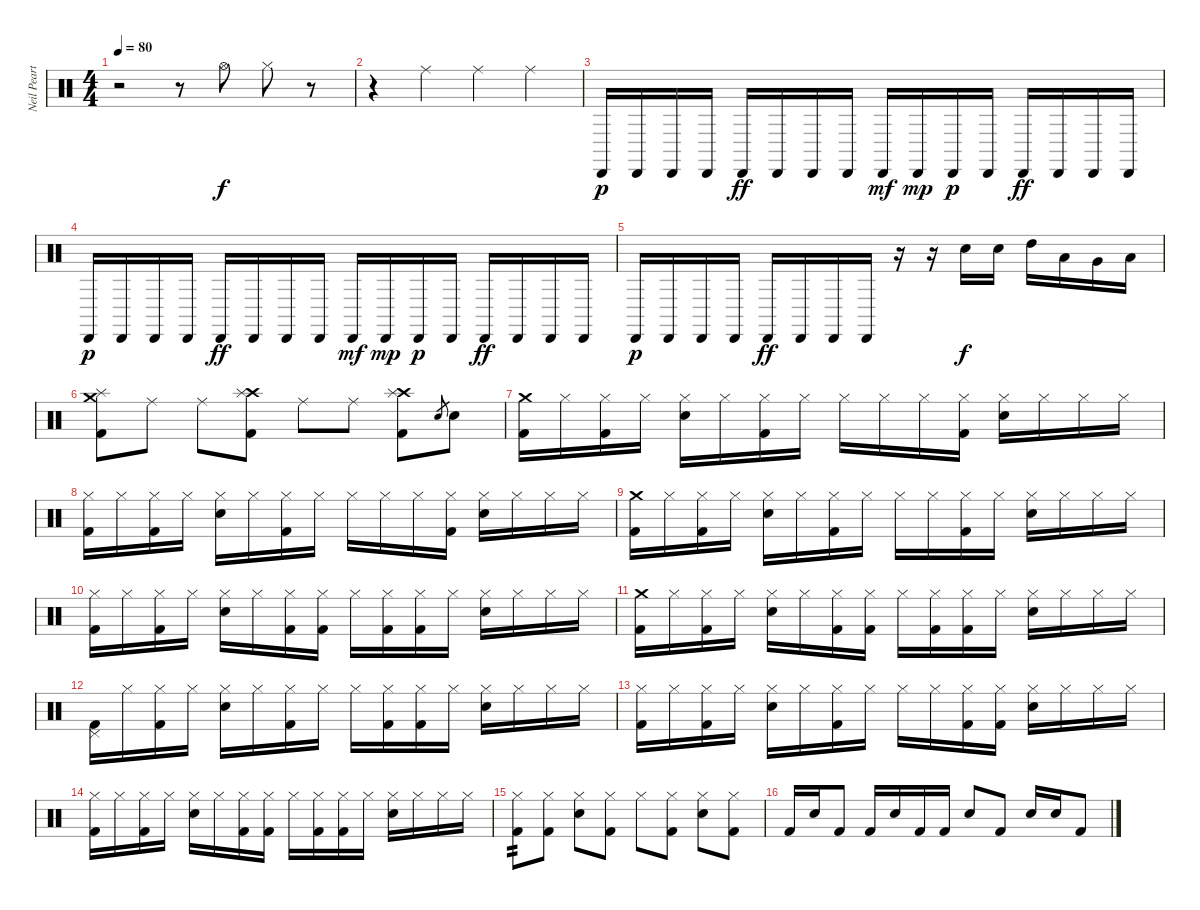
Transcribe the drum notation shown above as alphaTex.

\track ("Neil Peart" "Neil Peart") {instrument percussion}
\staff {score}
\articulation defaults
\ts (4 4)
\tempo 80
\clef neutral
\ks c
r.2{dy f} r.8 "Hi-Hat (open)".8 "Hi-Hat (closed)".8 r.8 |
r.4 "Ride (middle)".4 "Ride (middle)".4 "Ride (middle)".4 |
"Cabasa (hit)".16{dy p} "Cabasa (hit)".16 "Cabasa (hit)".16 "Cabasa (hit)".16 "Cabasa (hit)".16{dy ff} "Cabasa (hit)".16 "Cabasa (hit)".16 "Cabasa (hit)".16 "Cabasa (hit)".16{dy mf} "Cabasa (hit)".16{dy mp} "Cabasa (hit)".16{dy p} "Cabasa (hit)".16 "Cabasa (hit)".16{dy ff} "Cabasa (hit)".16 "Cabasa (hit)".16 "Cabasa (hit)".16 |
"Cabasa (hit)".16{dy p} "Cabasa (hit)".16 "Cabasa (hit)".16 "Cabasa (hit)".16 "Cabasa (hit)".16{dy ff} "Cabasa (hit)".16 "Cabasa (hit)".16 "Cabasa (hit)".16 "Cabasa (hit)".16{dy mf} "Cabasa (hit)".16{dy mp} "Cabasa (hit)".16{dy p} "Cabasa (hit)".16 "Cabasa (hit)".16{dy ff} "Cabasa (hit)".16 "Cabasa (hit)".16 "Cabasa (hit)".16 |
"Cabasa (hit)".16{dy p} "Cabasa (hit)".16 "Cabasa (hit)".16 "Cabasa (hit)".16 "Cabasa (hit)".16{dy ff} "Cabasa (hit)".16 "Cabasa (hit)".16 "Cabasa (hit)".16 r.16 r.16 "Electric Snare (hit)".16{dy f} "Electric Snare (hit)".16 "High Tom (hit)".16 "Low Tom (hit)".16 "Very Low Tom (hit)".16 "Low Floor Tom (hit)".16 |
("Splash (hit)" "Crash medium (hit)" "Kick (hit) 2").8 "Ride (middle)".8 "Ride (middle)".8 ("Crash high (hit)" "Splash (hit)" "Kick (hit) 2").8 "Ride (middle)".8 "Ride (middle)".8 ("Crash high (hit)" "Splash (hit)" "Kick (hit) 2").8 "Electric Snare (hit)".8{gr} "Electric Snare (hit)".8 |
("Crash medium (hit)" "Kick (hit) 2").16 "Hi-Hat (closed)".16 ("Hi-Hat (closed)" "Kick (hit) 2").16 "Hi-Hat (closed)".16 ("Hi-Hat (closed)" "Electric Snare (hit)").16 "Hi-Hat (closed)".16 ("Hi-Hat (closed)" "Kick (hit) 2").16 "Hi-Hat (closed)".16 "Hi-Hat (closed)".16 "Hi-Hat (closed)".16 "Hi-Hat (closed)".16 ("Hi-Hat (closed)" "Kick (hit) 2").16 ("Hi-Hat (closed)" "Electric Snare (hit)").16 "Hi-Hat (closed)".16 "Hi-Hat (closed)".16 "Hi-Hat (closed)".16 |
("Hi-Hat (closed)" "Kick (hit) 2").16 "Hi-Hat (closed)".16 ("Hi-Hat (closed)" "Kick (hit) 2").16 "Hi-Hat (closed)".16 ("Hi-Hat (closed)" "Electric Snare (hit)").16 "Hi-Hat (closed)".16 ("Hi-Hat (closed)" "Kick (hit) 2").16 "Hi-Hat (closed)".16 "Hi-Hat (closed)".16 "Hi-Hat (closed)".16 "Hi-Hat (closed)".16 ("Hi-Hat (closed)" "Kick (hit) 2").16 ("Hi-Hat (closed)" "Electric Snare (hit)").16 "Hi-Hat (closed)".16 "Hi-Hat (closed)".16 "Hi-Hat (closed)".16 |
("Crash medium (hit)" "Kick (hit) 2").16 "Hi-Hat (closed)".16 ("Hi-Hat (closed)" "Kick (hit) 2").16 "Hi-Hat (closed)".16 ("Hi-Hat (closed)" "Electric Snare (hit)").16 "Hi-Hat (closed)".16 ("Hi-Hat (closed)" "Kick (hit) 2").16 "Hi-Hat (closed)".16 "Hi-Hat (closed)".16 "Hi-Hat (closed)".16 ("Hi-Hat (closed)" "Kick (hit) 2").16 "Hi-Hat (closed)".16 ("Hi-Hat (closed)" "Electric Snare (hit)").16 "Hi-Hat (closed)".16 "Hi-Hat (closed)".16 "Hi-Hat (closed)".16 |
("Hi-Hat (closed)" "Kick (hit) 2").16 "Hi-Hat (closed)".16 ("Hi-Hat (closed)" "Kick (hit) 2").16 "Hi-Hat (closed)".16 ("Hi-Hat (closed)" "Electric Snare (hit)").16 "Hi-Hat (closed)".16 ("Hi-Hat (closed)" "Kick (hit) 2").16 ("Hi-Hat (closed)" "Kick (hit) 2").16 "Hi-Hat (closed)".16 ("Hi-Hat (closed)" "Kick (hit) 2").16 ("Hi-Hat (closed)" "Kick (hit) 2").16 "Hi-Hat (closed)".16 ("Hi-Hat (closed)" "Electric Snare (hit)").16 "Hi-Hat (closed)".16 "Hi-Hat (closed)".16 "Hi-Hat (closed)".16 |
("Crash medium (hit)" "Kick (hit) 2").16 "Hi-Hat (closed)".16 ("Hi-Hat (closed)" "Kick (hit) 2").16 "Hi-Hat (closed)".16 ("Hi-Hat (closed)" "Electric Snare (hit)").16 "Hi-Hat (closed)".16 ("Hi-Hat (closed)" "Kick (hit) 2").16 ("Hi-Hat (closed)" "Kick (hit) 2").16 "Hi-Hat (closed)".16 ("Hi-Hat (closed)" "Kick (hit) 2").16 ("Hi-Hat (closed)" "Kick (hit) 2").16 "Hi-Hat (closed)".16 ("Hi-Hat (closed)" "Electric Snare (hit)").16 "Hi-Hat (closed)".16 "Hi-Hat (closed)".16 "Hi-Hat (closed)".16 |
("Pedal Hi-Hat (hit)" "Kick (hit) 2").16 "Hi-Hat (closed)".16 ("Hi-Hat (closed)" "Kick (hit) 2").16 "Hi-Hat (closed)".16 ("Hi-Hat (closed)" "Electric Snare (hit)").16 "Hi-Hat (closed)".16 ("Hi-Hat (closed)" "Kick (hit) 2").16 "Hi-Hat (closed)".16 "Hi-Hat (closed)".16 ("Hi-Hat (closed)" "Kick (hit) 2").16 ("Hi-Hat (closed)" "Kick (hit) 2").16 "Hi-Hat (closed)".16 ("Hi-Hat (closed)" "Electric Snare (hit)").16 "Hi-Hat (closed)".16 "Hi-Hat (closed)".16 "Hi-Hat (closed)".16 |
("Hi-Hat (closed)" "Kick (hit) 2").16 "Hi-Hat (closed)".16 ("Hi-Hat (closed)" "Kick (hit) 2").16 "Hi-Hat (closed)".16 ("Hi-Hat (closed)" "Electric Snare (hit)").16 "Hi-Hat (closed)".16 ("Hi-Hat (closed)" "Kick (hit) 2").16 "Hi-Hat (closed)".16 "Hi-Hat (closed)".16 "Hi-Hat (closed)".16 ("Hi-Hat (closed)" "Kick (hit) 2").16 ("Hi-Hat (closed)" "Kick (hit) 2").16 ("Hi-Hat (closed)" "Electric Snare (hit)").16 "Hi-Hat (closed)".16 "Hi-Hat (closed)".16 "Hi-Hat (closed)".16 |
("Hi-Hat (closed)" "Kick (hit) 2").16 "Hi-Hat (closed)".16 ("Hi-Hat (closed)" "Kick (hit) 2").16 "Hi-Hat (closed)".16 ("Hi-Hat (closed)" "Electric Snare (hit)").16 "Hi-Hat (closed)".16 ("Hi-Hat (closed)" "Kick (hit) 2").16 ("Hi-Hat (closed)" "Kick (hit) 2").16 "Hi-Hat (closed)".16 ("Hi-Hat (closed)" "Kick (hit) 2").16 ("Hi-Hat (closed)" "Kick (hit) 2").16 "Hi-Hat (closed)".16 ("Hi-Hat (closed)" "Electric Snare (hit)").16 "Hi-Hat (closed)".16 "Hi-Hat (closed)".16 "Hi-Hat (closed)".16 |
("Hi-Hat (closed)" "Kick (hit) 2").8{tp 2} ("Hi-Hat (closed)" "Kick (hit) 2").8 ("Hi-Hat (closed)" "Electric Snare (hit)").8 ("Hi-Hat (closed)" "Kick (hit) 2").8 "Hi-Hat (closed)".8 ("Hi-Hat (closed)" "Kick (hit) 2").8 ("Hi-Hat (closed)" "Electric Snare (hit)").8 ("Hi-Hat (closed)" "Kick (hit) 2").8 |
"Kick (hit) 2".16 "Electric Snare (hit)".16 "Kick (hit) 2".8 "Kick (hit) 2".16 "Electric Snare (hit)".16 "Kick (hit) 2".16 "Kick (hit) 2".16 "Electric Snare (hit)".8 "Kick (hit) 2".8 "Electric Snare (hit)".16 "Electric Snare (hit)".16 "Kick (hit) 2".8
